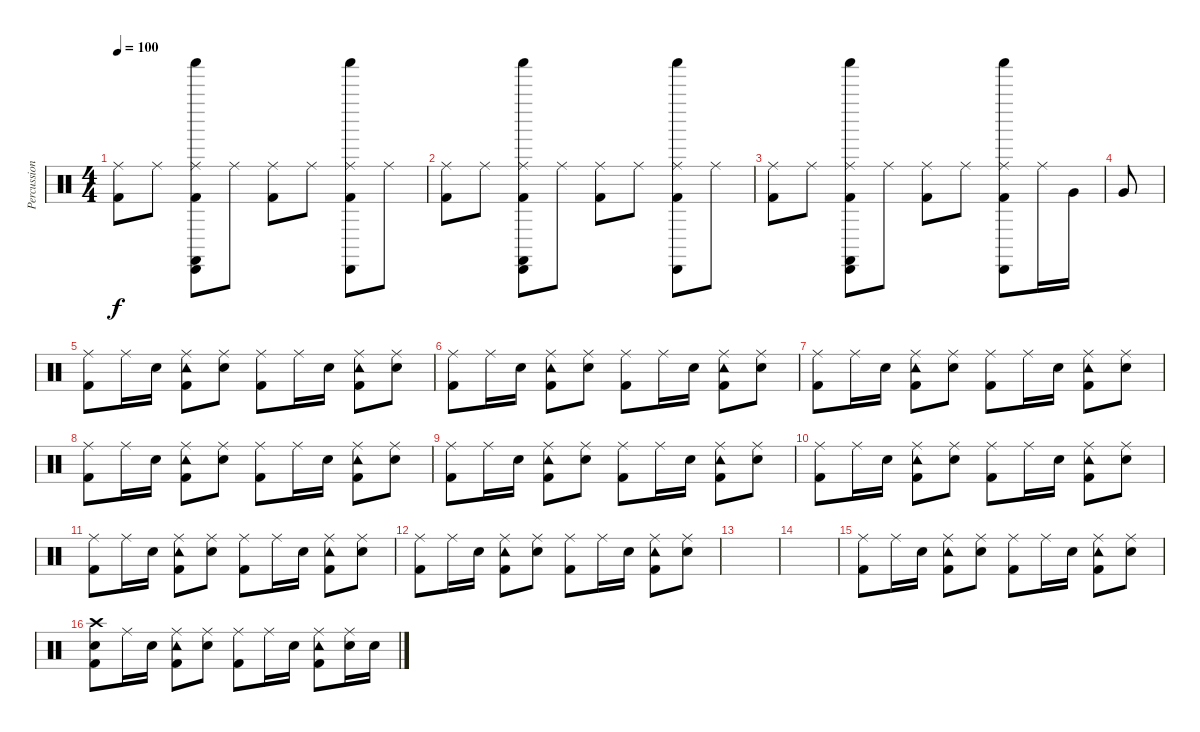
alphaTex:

\track ("Percussion" "Percussion") {instrument percussion}
\staff {score}
\articulation defaults
\ts (4 4)
\tempo 100
\clef neutral
\ks c
("Kick (hit) 2" "Ride (middle)").8{dy f} "Ride (middle)".8 ("Cabasa (hit)" "Castanets (hit)" "Shaker (hit)" "Kick (hit) 2" "Ride (middle)").8 "Ride (middle)".8 ("Kick (hit) 2" "Ride (middle)").8 "Ride (middle)".8 ("Shaker (hit)" "Cabasa (hit)" "Kick (hit) 2" "Ride (middle)").8 "Ride (middle)".8 |
("Kick (hit) 2" "Ride (middle)").8 "Ride (middle)".8 ("Cabasa (hit)" "Castanets (hit)" "Shaker (hit)" "Kick (hit) 2" "Ride (middle)").8 "Ride (middle)".8 ("Kick (hit) 2" "Ride (middle)").8 "Ride (middle)".8 ("Shaker (hit)" "Cabasa (hit)" "Kick (hit) 2" "Ride (middle)").8 "Ride (middle)".8 |
("Kick (hit) 2" "Ride (middle)").8 "Ride (middle)".8 ("Cabasa (hit)" "Castanets (hit)" "Shaker (hit)" "Kick (hit) 2" "Ride (middle)").8 "Ride (middle)".8 ("Kick (hit) 2" "Ride (middle)").8 "Ride (middle)".8 ("Shaker (hit)" "Cabasa (hit)" "Kick (hit) 2" "Ride (middle)").8 "Ride (middle)".16 "Very Low Tom (hit)".16 |
"Very Low Tom (hit)".8 |
("Kick (hit) 2" "Ride (middle)").8 "Ride (middle)".16 "Electric Snare (hit)".16 ("Kick (hit) 2" "Ride (middle)" "Tambourine (hit)").8 ("Ride (middle)" "Electric Snare (hit)").8 ("Kick (hit) 2" "Ride (middle)").8 "Ride (middle)".16 "Electric Snare (hit)".16 ("Kick (hit) 2" "Ride (middle)" "Tambourine (hit)").8 ("Ride (middle)" "Electric Snare (hit)").8 |
("Kick (hit) 2" "Ride (middle)").8 "Ride (middle)".16 "Electric Snare (hit)".16 ("Kick (hit) 2" "Ride (middle)" "Tambourine (hit)").8 ("Ride (middle)" "Electric Snare (hit)").8 ("Kick (hit) 2" "Ride (middle)").8 "Ride (middle)".16 "Electric Snare (hit)".16 ("Kick (hit) 2" "Ride (middle)" "Tambourine (hit)").8 ("Ride (middle)" "Electric Snare (hit)").8 |
("Kick (hit) 2" "Ride (middle)").8 "Ride (middle)".16 "Electric Snare (hit)".16 ("Kick (hit) 2" "Ride (middle)" "Tambourine (hit)").8 ("Ride (middle)" "Electric Snare (hit)").8 ("Kick (hit) 2" "Ride (middle)").8 "Ride (middle)".16 "Electric Snare (hit)".16 ("Kick (hit) 2" "Ride (middle)" "Tambourine (hit)").8 ("Ride (middle)" "Electric Snare (hit)").8 |
("Kick (hit) 2" "Ride (middle)").8 "Ride (middle)".16 "Electric Snare (hit)".16 ("Kick (hit) 2" "Ride (middle)" "Tambourine (hit)").8 ("Ride (middle)" "Electric Snare (hit)").8 ("Kick (hit) 2" "Ride (middle)").8 "Ride (middle)".16 "Electric Snare (hit)".16 ("Kick (hit) 2" "Ride (middle)" "Tambourine (hit)").8 ("Ride (middle)" "Electric Snare (hit)").8 |
("Kick (hit) 2" "Ride (middle)").8 "Ride (middle)".16 "Electric Snare (hit)".16 ("Kick (hit) 2" "Ride (middle)" "Tambourine (hit)").8 ("Ride (middle)" "Electric Snare (hit)").8 ("Kick (hit) 2" "Ride (middle)").8 "Ride (middle)".16 "Electric Snare (hit)".16 ("Kick (hit) 2" "Ride (middle)" "Tambourine (hit)").8 ("Ride (middle)" "Electric Snare (hit)").8 |
("Kick (hit) 2" "Ride (middle)").8 "Ride (middle)".16 "Electric Snare (hit)".16 ("Kick (hit) 2" "Ride (middle)" "Tambourine (hit)").8 ("Ride (middle)" "Electric Snare (hit)").8 ("Kick (hit) 2" "Ride (middle)").8 "Ride (middle)".16 "Electric Snare (hit)".16 ("Kick (hit) 2" "Ride (middle)" "Tambourine (hit)").8 ("Ride (middle)" "Electric Snare (hit)").8 |
("Kick (hit) 2" "Ride (middle)").8 "Ride (middle)".16 "Electric Snare (hit)".16 ("Kick (hit) 2" "Ride (middle)" "Tambourine (hit)").8 ("Ride (middle)" "Electric Snare (hit)").8 ("Kick (hit) 2" "Ride (middle)").8 "Ride (middle)".16 "Electric Snare (hit)".16 ("Kick (hit) 2" "Ride (middle)" "Tambourine (hit)").8 ("Ride (middle)" "Electric Snare (hit)").8 |
("Kick (hit) 2" "Ride (middle)").8 "Ride (middle)".16 "Electric Snare (hit)".16 ("Kick (hit) 2" "Ride (middle)" "Tambourine (hit)").8 ("Ride (middle)" "Electric Snare (hit)").8 ("Kick (hit) 2" "Ride (middle)").8 "Ride (middle)".16 "Electric Snare (hit)".16 ("Kick (hit) 2" "Ride (middle)" "Tambourine (hit)").8 ("Ride (middle)" "Electric Snare (hit)").8 |
|
|
("Kick (hit) 2" "Ride (middle)").8 "Ride (middle)".16 "Electric Snare (hit)".16 ("Kick (hit) 2" "Ride (middle)" "Tambourine (hit)").8 ("Ride (middle)" "Electric Snare (hit)").8 ("Kick (hit) 2" "Ride (middle)").8 "Ride (middle)".16 "Electric Snare (hit)".16 ("Kick (hit) 2" "Ride (middle)" "Tambourine (hit)").8 ("Ride (middle)" "Electric Snare (hit)").8 |
("Crash high (hit)" "Electric Snare (hit)" "Kick (hit) 2").8 "Ride (middle)".16 "Electric Snare (hit)".16 ("Kick (hit) 2" "Ride (middle)" "Tambourine (hit)").8 ("Ride (middle)" "Electric Snare (hit)").8 ("Kick (hit) 2" "Ride (middle)").8 "Ride (middle)".16 "Electric Snare (hit)".16 ("Kick (hit) 2" "Ride (middle)" "Tambourine (hit)").8 ("Ride (middle)" "Electric Snare (hit)").16 "Electric Snare (hit)".16
